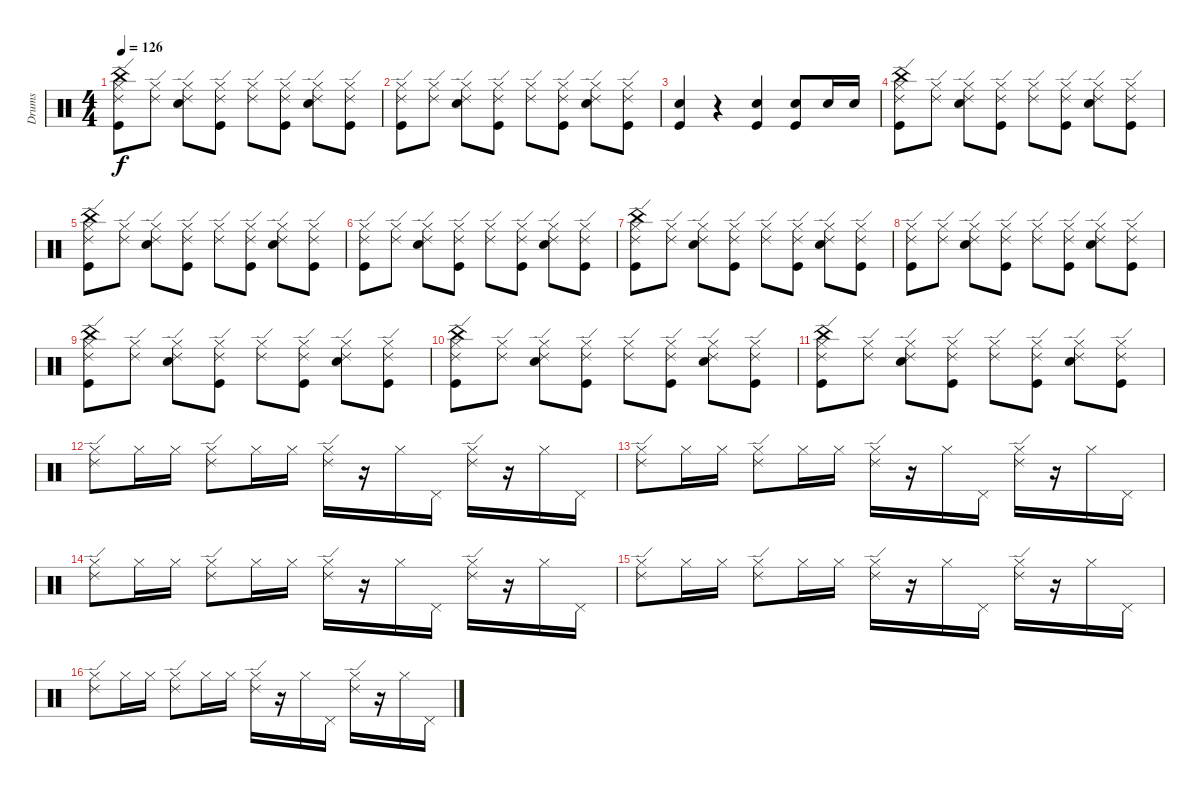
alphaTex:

\track ("Drums" "Drums") {instrument percussion}
\staff {score}
\articulation defaults
\ts (4 4)
\tempo 126
\clef neutral
\ks c
("Hi-Hat (closed)" "China (hit)" "Ride (edge) 2" "Kick (hit)").8{dy f} ("Hi-Hat (closed)" "Ride (edge) 2").8 ("Hi-Hat (closed)" "Ride (edge) 2" "Electric Snare (hit)").8 ("Hi-Hat (closed)" "Ride (edge) 2" "Kick (hit)").8 ("Hi-Hat (closed)" "Ride (edge) 2").8 ("Hi-Hat (closed)" "Ride (edge) 2" "Kick (hit)").8 ("Hi-Hat (closed)" "Ride (edge) 2" "Electric Snare (hit)").8 ("Hi-Hat (closed)" "Ride (edge) 2" "Kick (hit)").8 |
("Hi-Hat (closed)" "Ride (edge) 2" "Kick (hit)").8 ("Hi-Hat (closed)" "Ride (edge) 2").8 ("Hi-Hat (closed)" "Ride (edge) 2" "Electric Snare (hit)").8 ("Hi-Hat (closed)" "Ride (edge) 2" "Kick (hit)").8 ("Hi-Hat (closed)" "Ride (edge) 2").8 ("Hi-Hat (closed)" "Ride (edge) 2" "Kick (hit)").8 ("Hi-Hat (closed)" "Ride (edge) 2" "Electric Snare (hit)").8 ("Hi-Hat (closed)" "Ride (edge) 2" "Kick (hit)").8 |
("Electric Snare (hit)" "Kick (hit)").4 r.4 ("Electric Snare (hit)" "Kick (hit)").4 ("Electric Snare (hit)" "Kick (hit)").8 "Electric Snare (hit)".16 "Electric Snare (hit)".16 |
("Hi-Hat (closed)" "China (hit)" "Ride (edge) 2" "Kick (hit)").8 ("Hi-Hat (closed)" "Ride (edge) 2").8 ("Hi-Hat (closed)" "Ride (edge) 2" "Electric Snare (hit)").8 ("Hi-Hat (closed)" "Ride (edge) 2" "Kick (hit)").8 ("Hi-Hat (closed)" "Ride (edge) 2").8 ("Hi-Hat (closed)" "Ride (edge) 2" "Kick (hit)").8 ("Hi-Hat (closed)" "Ride (edge) 2" "Electric Snare (hit)").8 ("Hi-Hat (closed)" "Ride (edge) 2" "Kick (hit)").8 |
("Hi-Hat (closed)" "China (hit)" "Ride (edge) 2" "Kick (hit)").8 ("Hi-Hat (closed)" "Ride (edge) 2").8 ("Hi-Hat (closed)" "Ride (edge) 2" "Electric Snare (hit)").8 ("Hi-Hat (closed)" "Ride (edge) 2" "Kick (hit)").8 ("Hi-Hat (closed)" "Ride (edge) 2").8 ("Hi-Hat (closed)" "Ride (edge) 2" "Kick (hit)").8 ("Hi-Hat (closed)" "Ride (edge) 2" "Electric Snare (hit)").8 ("Hi-Hat (closed)" "Ride (edge) 2" "Kick (hit)").8 |
("Hi-Hat (closed)" "Ride (edge) 2" "Kick (hit)").8 ("Hi-Hat (closed)" "Ride (edge) 2").8 ("Hi-Hat (closed)" "Ride (edge) 2" "Electric Snare (hit)").8 ("Hi-Hat (closed)" "Ride (edge) 2" "Kick (hit)").8 ("Hi-Hat (closed)" "Ride (edge) 2").8 ("Hi-Hat (closed)" "Ride (edge) 2" "Kick (hit)").8 ("Hi-Hat (closed)" "Ride (edge) 2" "Electric Snare (hit)").8 ("Hi-Hat (closed)" "Ride (edge) 2" "Kick (hit)").8 |
("Hi-Hat (closed)" "China (hit)" "Ride (edge) 2" "Kick (hit)").8 ("Hi-Hat (closed)" "Ride (edge) 2").8 ("Hi-Hat (closed)" "Ride (edge) 2" "Electric Snare (hit)").8 ("Hi-Hat (closed)" "Ride (edge) 2" "Kick (hit)").8 ("Hi-Hat (closed)" "Ride (edge) 2").8 ("Hi-Hat (closed)" "Ride (edge) 2" "Kick (hit)").8 ("Hi-Hat (closed)" "Ride (edge) 2" "Electric Snare (hit)").8 ("Hi-Hat (closed)" "Ride (edge) 2" "Kick (hit)").8 |
("Hi-Hat (closed)" "Ride (edge) 2" "Kick (hit)").8 ("Hi-Hat (closed)" "Ride (edge) 2").8 ("Hi-Hat (closed)" "Ride (edge) 2" "Electric Snare (hit)").8 ("Hi-Hat (closed)" "Ride (edge) 2" "Kick (hit)").8 ("Hi-Hat (closed)" "Ride (edge) 2").8 ("Hi-Hat (closed)" "Ride (edge) 2" "Kick (hit)").8 ("Hi-Hat (closed)" "Ride (edge) 2" "Electric Snare (hit)").8 ("Hi-Hat (closed)" "Ride (edge) 2" "Kick (hit)").8 |
("Hi-Hat (closed)" "China (hit)" "Ride (edge) 2" "Kick (hit)").8 ("Hi-Hat (closed)" "Ride (edge) 2").8 ("Hi-Hat (closed)" "Ride (edge) 2" "Electric Snare (hit)").8 ("Hi-Hat (closed)" "Ride (edge) 2" "Kick (hit)").8 ("Hi-Hat (closed)" "Ride (edge) 2").8 ("Hi-Hat (closed)" "Ride (edge) 2" "Kick (hit)").8 ("Hi-Hat (closed)" "Ride (edge) 2" "Electric Snare (hit)").8 ("Hi-Hat (closed)" "Ride (edge) 2" "Kick (hit)").8 |
("Hi-Hat (closed)" "China (hit)" "Ride (edge) 2" "Kick (hit)").8 ("Hi-Hat (closed)" "Ride (edge) 2").8 ("Hi-Hat (closed)" "Ride (edge) 2" "Electric Snare (hit)").8 ("Hi-Hat (closed)" "Ride (edge) 2" "Kick (hit)").8 ("Hi-Hat (closed)" "Ride (edge) 2").8 ("Hi-Hat (closed)" "Ride (edge) 2" "Kick (hit)").8 ("Hi-Hat (closed)" "Ride (edge) 2" "Electric Snare (hit)").8 ("Hi-Hat (closed)" "Ride (edge) 2" "Kick (hit)").8 |
("Hi-Hat (closed)" "China (hit)" "Ride (edge) 2" "Kick (hit)").8 ("Hi-Hat (closed)" "Ride (edge) 2").8 ("Hi-Hat (closed)" "Ride (edge) 2" "Electric Snare (hit)").8 ("Hi-Hat (closed)" "Ride (edge) 2" "Kick (hit)").8 ("Hi-Hat (closed)" "Ride (edge) 2").8 ("Hi-Hat (closed)" "Ride (edge) 2" "Kick (hit)").8 ("Hi-Hat (closed)" "Ride (edge) 2" "Electric Snare (hit)").8 ("Hi-Hat (closed)" "Ride (edge) 2" "Kick (hit)").8 |
("Hi-Hat (closed)" "Ride (edge) 2").8 "Hi-Hat (closed)".16 "Hi-Hat (closed)".16 ("Hi-Hat (closed)" "Ride (edge) 2").8 "Hi-Hat (closed)".16 "Hi-Hat (closed)".16 ("Hi-Hat (closed)" "Ride (edge) 2").16 r.16 "Hi-Hat (closed)".16 "Pedal Hi-Hat (hit)".16 ("Hi-Hat (closed)" "Ride (edge) 2").16 r.16 "Hi-Hat (closed)".16 "Pedal Hi-Hat (hit)".16 |
("Hi-Hat (closed)" "Ride (edge) 2").8 "Hi-Hat (closed)".16 "Hi-Hat (closed)".16 ("Hi-Hat (closed)" "Ride (edge) 2").8 "Hi-Hat (closed)".16 "Hi-Hat (closed)".16 ("Hi-Hat (closed)" "Ride (edge) 2").16 r.16 "Hi-Hat (closed)".16 "Pedal Hi-Hat (hit)".16 ("Hi-Hat (closed)" "Ride (edge) 2").16 r.16 "Hi-Hat (closed)".16 "Pedal Hi-Hat (hit)".16 |
("Hi-Hat (closed)" "Ride (edge) 2").8 "Hi-Hat (closed)".16 "Hi-Hat (closed)".16 ("Hi-Hat (closed)" "Ride (edge) 2").8 "Hi-Hat (closed)".16 "Hi-Hat (closed)".16 ("Hi-Hat (closed)" "Ride (edge) 2").16 r.16 "Hi-Hat (closed)".16 "Pedal Hi-Hat (hit)".16 ("Hi-Hat (closed)" "Ride (edge) 2").16 r.16 "Hi-Hat (closed)".16 "Pedal Hi-Hat (hit)".16 |
("Hi-Hat (closed)" "Ride (edge) 2").8 "Hi-Hat (closed)".16 "Hi-Hat (closed)".16 ("Hi-Hat (closed)" "Ride (edge) 2").8 "Hi-Hat (closed)".16 "Hi-Hat (closed)".16 ("Hi-Hat (closed)" "Ride (edge) 2").16 r.16 "Hi-Hat (closed)".16 "Pedal Hi-Hat (hit)".16 ("Hi-Hat (closed)" "Ride (edge) 2").16 r.16 "Hi-Hat (closed)".16 "Pedal Hi-Hat (hit)".16 |
("Hi-Hat (closed)" "Ride (edge) 2").8 "Hi-Hat (closed)".16 "Hi-Hat (closed)".16 ("Hi-Hat (closed)" "Ride (edge) 2").8 "Hi-Hat (closed)".16 "Hi-Hat (closed)".16 ("Hi-Hat (closed)" "Ride (edge) 2").16 r.16 "Hi-Hat (closed)".16 "Pedal Hi-Hat (hit)".16 ("Hi-Hat (closed)" "Ride (edge) 2").16 r.16 "Hi-Hat (closed)".16 "Pedal Hi-Hat (hit)".16
